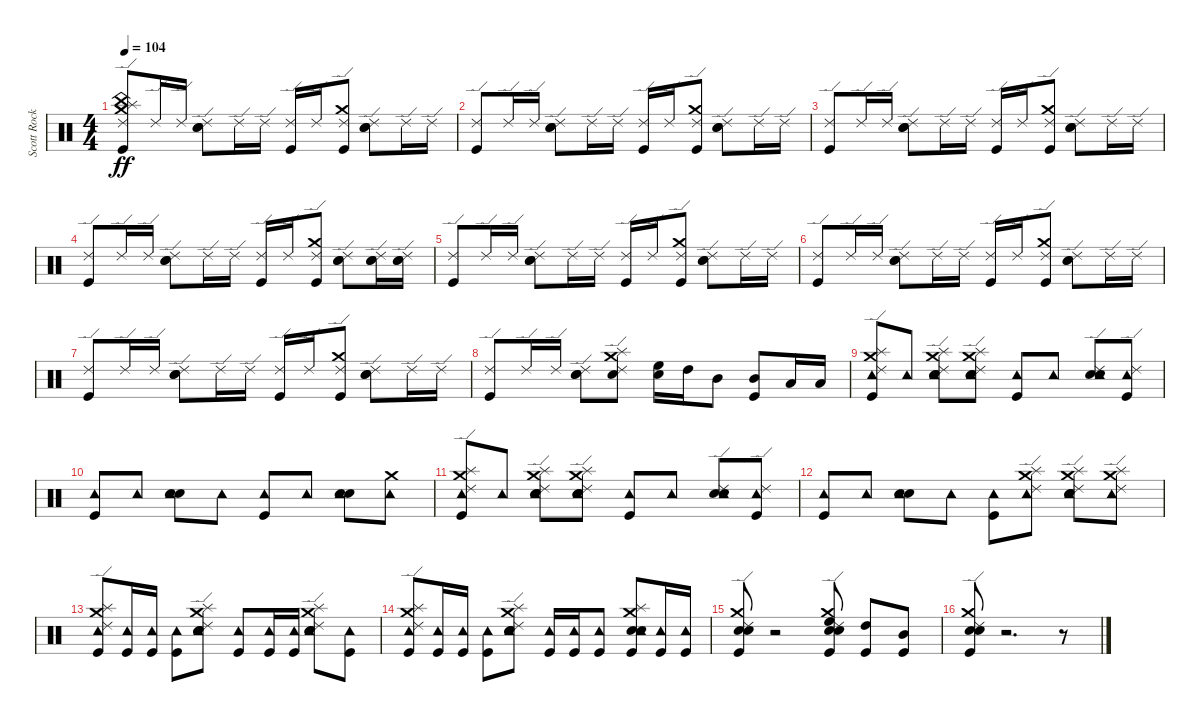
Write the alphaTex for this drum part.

\track ("Scott Rockenfield" "Scott Rock") {instrument percussion}
\staff {score}
\articulation defaults
\ts (4 4)
\tempo 104
\clef neutral
\ks c
("Kick (hit)" "China (hit)" "Splash (hit)" "Crash medium (hit)" "Ride (edge) 2").8{dy ff} "Ride (edge) 2".16 "Ride (edge) 2".16 ("Snare (hit) 2" "Electric Snare (hit)" "Ride (edge) 2").8 "Ride (edge) 2".16 "Ride (edge) 2".16 ("Kick (hit)" "Ride (edge) 2").16 "Ride (edge) 2".16 ("Kick (hit)" "Crash medium (hit)" "Ride (edge) 2").8 ("Snare (hit) 2" "Electric Snare (hit)" "Ride (edge) 2").8 "Ride (edge) 2".16 "Ride (edge) 2".16 |
("Kick (hit)" "Ride (edge) 2").8 "Ride (edge) 2".16 "Ride (edge) 2".16 ("Snare (hit) 2" "Electric Snare (hit)" "Ride (edge) 2").8 "Ride (edge) 2".16 "Ride (edge) 2".16 ("Kick (hit)" "Ride (edge) 2").16 "Ride (edge) 2".16 ("Kick (hit)" "Crash medium (hit)" "Ride (edge) 2").8 ("Snare (hit) 2" "Electric Snare (hit)" "Ride (edge) 2").8 "Ride (edge) 2".16 "Ride (edge) 2".16 |
("Kick (hit)" "Ride (edge) 2").8 "Ride (edge) 2".16 "Ride (edge) 2".16 ("Snare (hit) 2" "Electric Snare (hit)" "Ride (edge) 2").8 "Ride (edge) 2".16 "Ride (edge) 2".16 ("Kick (hit)" "Ride (edge) 2").16 "Ride (edge) 2".16 ("Kick (hit)" "Crash medium (hit)" "Ride (edge) 2").8 ("Snare (hit) 2" "Electric Snare (hit)" "Ride (edge) 2").8 "Ride (edge) 2".16 "Ride (edge) 2".16 |
("Kick (hit)" "Ride (edge) 2").8 "Ride (edge) 2".16 "Ride (edge) 2".16 ("Snare (hit) 2" "Electric Snare (hit)" "Ride (edge) 2").8 "Ride (edge) 2".16 "Ride (edge) 2".16 ("Kick (hit)" "Ride (edge) 2").16 "Ride (edge) 2".16 ("Kick (hit)" "Crash medium (hit)" "Ride (edge) 2").8 ("Snare (hit) 2" "Electric Snare (hit)" "Ride (edge) 2").8 ("Snare (hit) 2" "Electric Snare (hit)" "Ride (edge) 2").16 ("Snare (hit) 2" "Electric Snare (hit)" "Ride (edge) 2").16 |
("Kick (hit)" "Ride (edge) 2").8 "Ride (edge) 2".16 "Ride (edge) 2".16 ("Snare (hit) 2" "Electric Snare (hit)" "Ride (edge) 2").8 "Ride (edge) 2".16 "Ride (edge) 2".16 ("Kick (hit)" "Ride (edge) 2").16 "Ride (edge) 2".16 ("Kick (hit)" "Crash medium (hit)" "Ride (edge) 2").8 ("Snare (hit) 2" "Electric Snare (hit)" "Ride (edge) 2").8 "Ride (edge) 2".16 "Ride (edge) 2".16 |
("Kick (hit)" "Ride (edge) 2").8 "Ride (edge) 2".16 "Ride (edge) 2".16 ("Snare (hit) 2" "Electric Snare (hit)" "Ride (edge) 2").8 "Ride (edge) 2".16 "Ride (edge) 2".16 ("Kick (hit)" "Ride (edge) 2").16 "Ride (edge) 2".16 ("Kick (hit)" "Crash medium (hit)" "Ride (edge) 2").8 ("Snare (hit) 2" "Electric Snare (hit)" "Ride (edge) 2").8 "Ride (edge) 2".16 "Ride (edge) 2".16 |
("Kick (hit)" "Ride (edge) 2").8 "Ride (edge) 2".16 "Ride (edge) 2".16 ("Snare (hit) 2" "Electric Snare (hit)" "Ride (edge) 2").8 "Ride (edge) 2".16 "Ride (edge) 2".16 ("Kick (hit)" "Ride (edge) 2").16 "Ride (edge) 2".16 ("Kick (hit)" "Crash medium (hit)" "Ride (edge) 2").8 ("Snare (hit) 2" "Electric Snare (hit)" "Ride (edge) 2").8 "Ride (edge) 2".16 "Ride (edge) 2".16 |
("Kick (hit)" "Ride (edge) 2").8 "Ride (edge) 2".16 "Ride (edge) 2".16 ("Snare (hit) 2" "Electric Snare (hit)" "Ride (edge) 2").8 ("Electric Snare (hit)" "Splash (hit)" "Crash medium (hit)" "Ride (edge) 2").8 ("Electric Snare (hit)" "High Floor Tom (hit)").16 "High Tom (hit)".16 "Mid Tom (hit)".8 ("Kick (hit)" "Mid Tom (hit)").8 "Low Tom (hit)".16 "Low Tom (hit)".16 |
("Kick (hit)" "Tambourine (hit)" "Splash (hit)" "Crash medium (hit)" "Ride (edge) 2").8 "Tambourine (hit)".8 ("Snare (hit) 2" "Electric Snare (hit)" "Tambourine (hit)" "Splash (hit)" "Crash medium (hit)" "Ride (edge) 2").8 ("Snare (hit) 2" "Electric Snare (hit)" "Tambourine (hit)" "Splash (hit)" "Crash medium (hit)" "Ride (edge) 2").8 ("Kick (hit)" "Tambourine (hit)").8 "Tambourine (hit)".8 ("Snare (hit) 2" "Electric Snare (hit)" "Tambourine (hit)" "Ride (edge) 2").8 ("Kick (hit)" "Tambourine (hit)" "Ride (edge) 2").8 |
("Kick (hit)" "Tambourine (hit)").8 "Tambourine (hit)".8 ("Snare (hit) 2" "Electric Snare (hit)" "Tambourine (hit)").8 "Tambourine (hit)".8 ("Kick (hit)" "Tambourine (hit)").8 "Tambourine (hit)".8 ("Snare (hit) 2" "Electric Snare (hit)" "Tambourine (hit)").8 ("Tambourine (hit)" "Crash medium (hit)").8 |
("Kick (hit)" "Tambourine (hit)" "Splash (hit)" "Crash medium (hit)" "Ride (edge) 2").8 "Tambourine (hit)".8 ("Snare (hit) 2" "Electric Snare (hit)" "Tambourine (hit)" "Splash (hit)" "Crash medium (hit)" "Ride (edge) 2").8 ("Snare (hit) 2" "Electric Snare (hit)" "Tambourine (hit)" "Splash (hit)" "Crash medium (hit)" "Ride (edge) 2").8 ("Kick (hit)" "Tambourine (hit)").8 "Tambourine (hit)".8 ("Snare (hit) 2" "Electric Snare (hit)" "Tambourine (hit)" "Ride (edge) 2").8 ("Kick (hit)" "Tambourine (hit)" "Ride (edge) 2").8 |
("Kick (hit)" "Tambourine (hit)").8 "Tambourine (hit)".8 ("Snare (hit) 2" "Electric Snare (hit)" "Tambourine (hit)").8 "Tambourine (hit)".8 ("Kick (hit)" "Tambourine (hit)").8 ("Tambourine (hit)" "Splash (hit)" "Crash medium (hit)" "Ride (edge) 2").8 ("Snare (hit) 2" "Electric Snare (hit)" "Tambourine (hit)" "Splash (hit)" "Crash medium (hit)" "Ride (edge) 2").8 ("Tambourine (hit)" "Splash (hit)" "Crash medium (hit)" "Ride (edge) 2").8 |
("Kick (hit)" "Tambourine (hit)" "Splash (hit)" "Crash medium (hit)" "Ride (edge) 2").8 ("Kick (hit)" "Tambourine (hit)").16 ("Kick (hit)" "Tambourine (hit)").16 ("Kick (hit)" "Tambourine (hit)").8 ("Snare (hit) 2" "Electric Snare (hit)" "Tambourine (hit)" "Splash (hit)" "Crash medium (hit)" "Ride (edge) 2").8 ("Kick (hit)" "Tambourine (hit)").8 ("Kick (hit)" "Tambourine (hit)").16 ("Kick (hit)" "Tambourine (hit)").16 ("Snare (hit) 2" "Electric Snare (hit)" "Tambourine (hit)" "Splash (hit)" "Crash medium (hit)" "Ride (edge) 2").8 ("Kick (hit)" "Tambourine (hit)").8 |
("Kick (hit)" "Tambourine (hit)" "Splash (hit)" "Crash medium (hit)" "Ride (edge) 2").8 ("Kick (hit)" "Tambourine (hit)").16 ("Kick (hit)" "Tambourine (hit)").16 ("Kick (hit)" "Tambourine (hit)").8 ("Snare (hit) 2" "Electric Snare (hit)" "Tambourine (hit)" "Splash (hit)" "Crash medium (hit)" "Ride (edge) 2").8 ("Kick (hit)" "Tambourine (hit)").16 ("Kick (hit)" "Tambourine (hit)").16 ("Kick (hit)" "Tambourine (hit)").8 ("Kick (hit)" "Snare (hit) 2" "Electric Snare (hit)" "Tambourine (hit)" "Splash (hit)" "Crash medium (hit)").8 ("Kick (hit)" "Tambourine (hit)").16 ("Kick (hit)" "Tambourine (hit)").16 |
("Kick (hit)" "Snare (hit) 2" "Electric Snare (hit)" "Crash medium (hit)" "Ride (edge) 2").8 r.2 ("Kick (hit)" "Snare (hit) 2" "Electric Snare (hit)" "High Floor Tom (hit)" "Crash medium (hit)" "Ride (edge) 2").8 ("Kick (hit)" "High Tom (hit)").8 ("Kick (hit)" "Mid Tom (hit)").8 |
("Kick (hit)" "Snare (hit) 2" "Electric Snare (hit)" "Crash medium (hit)" "Ride (edge) 2").8 r.2{d} r.8
